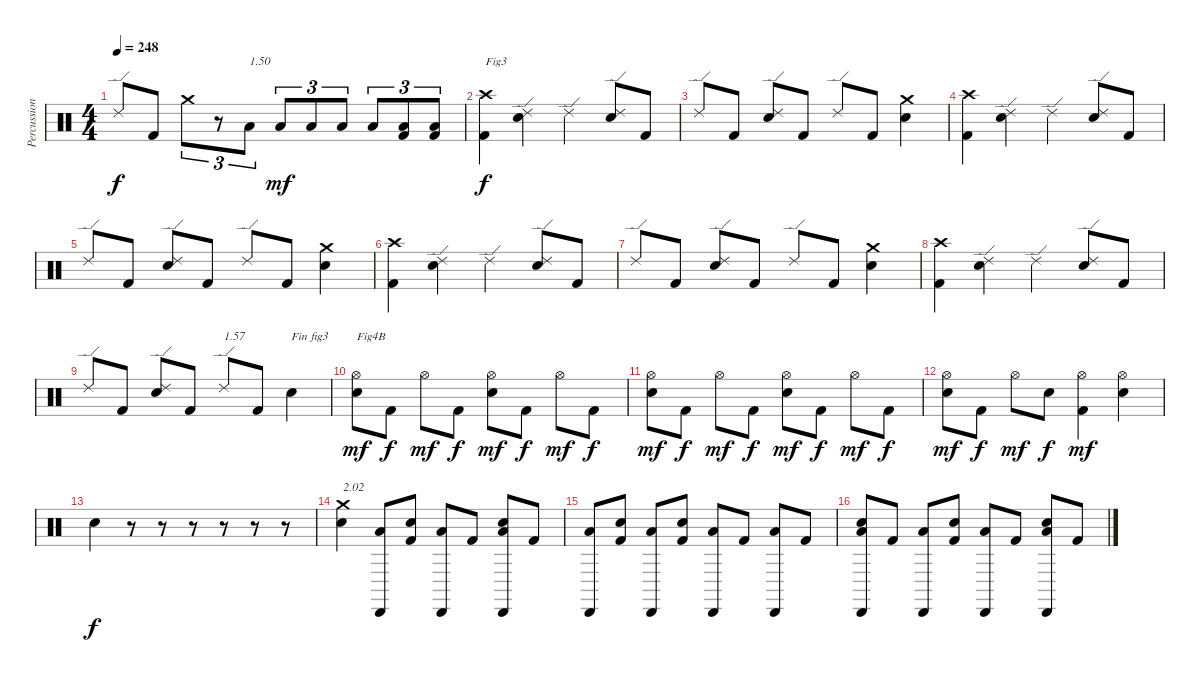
\track ("Percussions" "Percussion") {instrument percussion}
\staff {score}
\articulation defaults
\ts (4 4)
\tempo 248
\clef neutral
\ks c "Ride (edge) 2".8{dy f} "Kick (hit) 2".8 "Crash medium (hit)".8{tu (3 2)}
r.8{tu (3 2)} "Low Floor Tom (hit)".8{tu (3 2) txt "1.50"} "Low Floor Tom (hit)".8{tu (3 2) dy mf} "Low Floor Tom (hit)".8{tu (3 2)} "Low Floor Tom (hit)".8{tu (3 2)} "Low Floor Tom (hit)".8{tu (3 2)} ("Kick (hit) 2" "Low Floor Tom (hit)").8{tu (3 2)} ("Kick (hit) 2" "Low Floor Tom (hit)").8{tu (3 2)} |
("Kick (hit) 2" "Crash high (hit)").4{txt "Fig3" dy f} ("Electric Snare (hit)" "Ride (edge) 2").4 "Ride (edge) 2".4 ("Electric Snare (hit)" "Ride (edge) 2").8 "Kick (hit) 2".8 |
"Ride (edge) 2".8 "Kick (hit) 2".8 ("Electric Snare (hit)" "Ride (edge) 2").8 "Kick (hit) 2".8 "Ride (edge) 2".8 "Kick (hit) 2".8 ("Electric Snare (hit)" "Crash medium (hit)").4 |
("Kick (hit) 2" "Crash high (hit)").4 ("Electric Snare (hit)" "Ride (edge) 2").4 "Ride (edge) 2".4 ("Electric Snare (hit)" "Ride (edge) 2").8 "Kick (hit) 2".8 |
"Ride (edge) 2".8 "Kick (hit) 2".8 ("Electric Snare (hit)" "Ride (edge) 2").8 "Kick (hit) 2".8 "Ride (edge) 2".8 "Kick (hit) 2".8 ("Electric Snare (hit)" "Crash medium (hit)").4 |
("Kick (hit) 2" "Crash high (hit)").4 ("Electric Snare (hit)" "Ride (edge) 2").4 "Ride (edge) 2".4 ("Electric Snare (hit)" "Ride (edge) 2").8 "Kick (hit) 2".8 |
"Ride (edge) 2".8 "Kick (hit) 2".8 ("Electric Snare (hit)" "Ride (edge) 2").8 "Kick (hit) 2".8 "Ride (edge) 2".8 "Kick (hit) 2".8 ("Electric Snare (hit)" "Crash medium (hit)").4 |
("Kick (hit) 2" "Crash high (hit)").4 ("Electric Snare (hit)" "Ride (edge) 2").4 "Ride (edge) 2".4 ("Electric Snare (hit)" "Ride (edge) 2").8 "Kick (hit) 2".8 |
"Ride (edge) 2".8 "Kick (hit) 2".8 ("Electric Snare (hit)" "Ride (edge) 2").8 "Kick (hit) 2".8 "Ride (edge) 2".8{txt "1.57"} "Kick (hit) 2".8 "Electric Snare (hit)".4{txt "Fin fig3"} |
("Electric Snare (hit)" "Hi-Hat (open)").8{txt "Fig4B" dy mf} "Kick (hit) 2".8{dy f} "Hi-Hat (open)".8{dy mf} "Kick (hit) 2".8{dy f} ("Electric Snare (hit)" "Hi-Hat (open)").8{dy mf} "Kick (hit) 2".8{dy f} "Hi-Hat (open)".8{dy mf} "Kick (hit) 2".8{dy f} |
("Electric Snare (hit)" "Hi-Hat (open)").8{dy mf} "Kick (hit) 2".8{dy f} "Hi-Hat (open)".8{dy mf} "Kick (hit) 2".8{dy f} ("Electric Snare (hit)" "Hi-Hat (open)").8{dy mf} "Kick (hit) 2".8{dy f} "Hi-Hat (open)".8{dy mf} "Kick (hit) 2".8{dy f} |
("Electric Snare (hit)" "Hi-Hat (open)").8{dy mf} "Kick (hit) 2".8{dy f} "Hi-Hat (open)".8{dy mf} "Electric Snare (hit)".8{dy f} ("Kick (hit) 2" "Hi-Hat (open)").4{dy mf} ("Electric Snare (hit)" "Hi-Hat (open)").4 |
"Electric Snare (hit)".4{dy f} r.8 r.8 r.8 r.8 r.8 r.8 |
("Electric Snare (hit)" "Crash medium (hit)").4{txt "2.02"} ("Low Floor Tom (hit)" "Cabasa (hit)").8 ("Kick (hit) 2" "Electric Snare (hit)").8 ("Low Floor Tom (hit)" "Cabasa (hit)").8 "Kick (hit) 2".8 ("Low Floor Tom (hit)" "Electric Snare (hit)" "Cabasa (hit)").8 "Kick (hit) 2".8 |
("Low Floor Tom (hit)" "Cabasa (hit)").8 ("Kick (hit) 2" "Electric Snare (hit)").8 ("Low Floor Tom (hit)" "Cabasa (hit)").8 ("Kick (hit) 2" "Electric Snare (hit)").8 ("Low Floor Tom (hit)" "Cabasa (hit)").8 "Kick (hit) 2".8 ("Low Floor Tom (hit)" "Cabasa (hit)").8 "Kick (hit) 2".8 |
("Low Floor Tom (hit)" "Electric Snare (hit)" "Cabasa (hit)").8 "Kick (hit) 2".8 ("Low Floor Tom (hit)" "Cabasa (hit)").8 ("Kick (hit) 2" "Electric Snare (hit)").8 ("Low Floor Tom (hit)" "Cabasa (hit)").8 "Kick (hit) 2".8 ("Low Floor Tom (hit)" "Electric Snare (hit)" "Cabasa (hit)").8 "Kick (hit) 2".8
